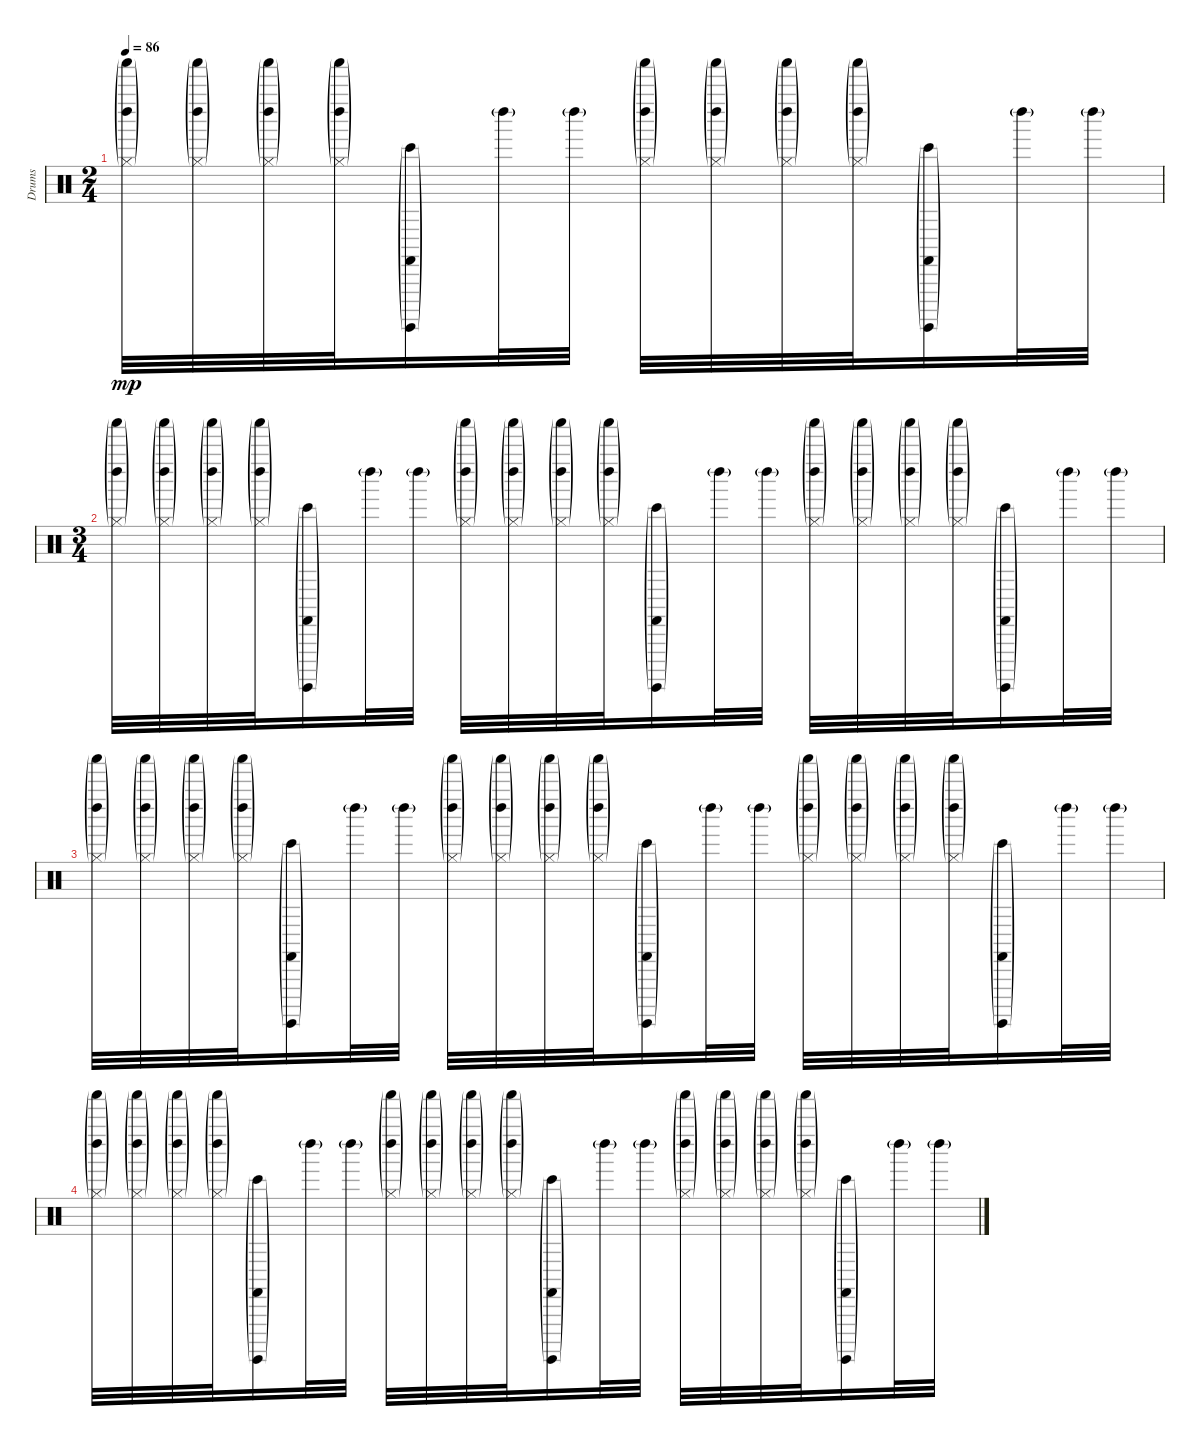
\track ("Drums" "Drums") {instrument percussion}
\staff {score}
\articulation defaults
\ts (2 4)
\tempo 86
\clef neutral
\ks c
("Shaker (hit)"{g} "Left Maraca (hit)"{g} "Hi-Hat (closed)"{g}).32{dy mp} ("Shaker (hit)"{g} "Left Maraca (hit)"{g} "Hi-Hat (closed)"{g}).32 ("Shaker (hit)"{g} "Left Maraca (hit)"{g} "Hi-Hat (closed)"{g}).32 ("Shaker (hit)"{g} "Left Maraca (hit)"{g} "Hi-Hat (closed)"{g}).32 ("Castanets (hit)"{g} "Surdo (hit)"{g} "Bongo High (hit)"{g}).16 "Left Maraca (hit)"{g}.32 "Left Maraca (hit)"{g}.32 ("Shaker (hit)"{g} "Left Maraca (hit)"{g} "Hi-Hat (closed)"{g}).32 ("Shaker (hit)"{g} "Left Maraca (hit)"{g} "Hi-Hat (closed)"{g}).32 ("Shaker (hit)"{g} "Left Maraca (hit)"{g} "Hi-Hat (closed)"{g}).32 ("Shaker (hit)"{g} "Left Maraca (hit)"{g} "Hi-Hat (closed)"{g}).32 ("Castanets (hit)"{g} "Surdo (hit)"{g} "Bongo High (hit)"{g}).16 "Left Maraca (hit)"{g}.32 "Left Maraca (hit)"{g}.32 |
\ts (3 4)
("Shaker (hit)"{g} "Left Maraca (hit)"{g} "Hi-Hat (closed)"{g}).32 ("Shaker (hit)"{g} "Left Maraca (hit)"{g} "Hi-Hat (closed)"{g}).32 ("Shaker (hit)"{g} "Left Maraca (hit)"{g} "Hi-Hat (closed)"{g}).32 ("Shaker (hit)"{g} "Left Maraca (hit)"{g} "Hi-Hat (closed)"{g}).32 ("Castanets (hit)"{g} "Surdo (hit)"{g} "Bongo High (hit)"{g}).16 "Left Maraca (hit)"{g}.32 "Left Maraca (hit)"{g}.32 ("Shaker (hit)"{g} "Left Maraca (hit)"{g} "Hi-Hat (closed)"{g}).32 ("Shaker (hit)"{g} "Left Maraca (hit)"{g} "Hi-Hat (closed)"{g}).32 ("Shaker (hit)"{g} "Left Maraca (hit)"{g} "Hi-Hat (closed)"{g}).32 ("Shaker (hit)"{g} "Left Maraca (hit)"{g} "Hi-Hat (closed)"{g}).32 ("Castanets (hit)"{g} "Surdo (hit)"{g} "Bongo High (hit)"{g}).16 "Left Maraca (hit)"{g}.32 "Left Maraca (hit)"{g}.32 ("Shaker (hit)"{g} "Left Maraca (hit)"{g} "Hi-Hat (closed)"{g}).32 ("Shaker (hit)"{g} "Left Maraca (hit)"{g} "Hi-Hat (closed)"{g}).32 ("Shaker (hit)"{g} "Left Maraca (hit)"{g} "Hi-Hat (closed)"{g}).32 ("Shaker (hit)"{g} "Left Maraca (hit)"{g} "Hi-Hat (closed)"{g}).32 ("Castanets (hit)"{g} "Surdo (hit)"{g} "Bongo High (hit)"{g}).16 "Left Maraca (hit)"{g}.32 "Left Maraca (hit)"{g}.32 |
("Shaker (hit)"{g} "Left Maraca (hit)"{g} "Hi-Hat (closed)"{g}).32 ("Shaker (hit)"{g} "Left Maraca (hit)"{g} "Hi-Hat (closed)"{g}).32 ("Shaker (hit)"{g} "Left Maraca (hit)"{g} "Hi-Hat (closed)"{g}).32 ("Shaker (hit)"{g} "Left Maraca (hit)"{g} "Hi-Hat (closed)"{g}).32 ("Castanets (hit)"{g} "Surdo (hit)"{g} "Bongo High (hit)"{g}).16 "Left Maraca (hit)"{g}.32 "Left Maraca (hit)"{g}.32 ("Shaker (hit)"{g} "Left Maraca (hit)"{g} "Hi-Hat (closed)"{g}).32 ("Shaker (hit)"{g} "Left Maraca (hit)"{g} "Hi-Hat (closed)"{g}).32 ("Shaker (hit)"{g} "Left Maraca (hit)"{g} "Hi-Hat (closed)"{g}).32 ("Shaker (hit)"{g} "Left Maraca (hit)"{g} "Hi-Hat (closed)"{g}).32 ("Castanets (hit)"{g} "Surdo (hit)"{g} "Bongo High (hit)"{g}).16 "Left Maraca (hit)"{g}.32 "Left Maraca (hit)"{g}.32 ("Shaker (hit)"{g} "Left Maraca (hit)"{g} "Hi-Hat (closed)"{g}).32 ("Shaker (hit)"{g} "Left Maraca (hit)"{g} "Hi-Hat (closed)"{g}).32 ("Shaker (hit)"{g} "Left Maraca (hit)"{g} "Hi-Hat (closed)"{g}).32 ("Shaker (hit)"{g} "Left Maraca (hit)"{g} "Hi-Hat (closed)"{g}).32 ("Castanets (hit)"{g} "Surdo (hit)"{g} "Bongo High (hit)"{g}).16 "Left Maraca (hit)"{g}.32 "Left Maraca (hit)"{g}.32 |
("Shaker (hit)"{g} "Left Maraca (hit)"{g} "Hi-Hat (closed)"{g}).32 ("Shaker (hit)"{g} "Left Maraca (hit)"{g} "Hi-Hat (closed)"{g}).32 ("Shaker (hit)"{g} "Left Maraca (hit)"{g} "Hi-Hat (closed)"{g}).32 ("Shaker (hit)"{g} "Left Maraca (hit)"{g} "Hi-Hat (closed)"{g}).32 ("Castanets (hit)"{g} "Surdo (hit)"{g} "Bongo High (hit)"{g}).16 "Left Maraca (hit)"{g}.32 "Left Maraca (hit)"{g}.32 ("Shaker (hit)"{g} "Left Maraca (hit)"{g} "Hi-Hat (closed)"{g}).32 ("Shaker (hit)"{g} "Left Maraca (hit)"{g} "Hi-Hat (closed)"{g}).32 ("Shaker (hit)"{g} "Left Maraca (hit)"{g} "Hi-Hat (closed)"{g}).32 ("Shaker (hit)"{g} "Left Maraca (hit)"{g} "Hi-Hat (closed)"{g}).32 ("Castanets (hit)"{g} "Surdo (hit)"{g} "Bongo High (hit)"{g}).16 "Left Maraca (hit)"{g}.32 "Left Maraca (hit)"{g}.32 ("Shaker (hit)"{g} "Left Maraca (hit)"{g} "Hi-Hat (closed)"{g}).32 ("Shaker (hit)"{g} "Left Maraca (hit)"{g} "Hi-Hat (closed)"{g}).32 ("Shaker (hit)"{g} "Left Maraca (hit)"{g} "Hi-Hat (closed)"{g}).32 ("Shaker (hit)"{g} "Left Maraca (hit)"{g} "Hi-Hat (closed)"{g}).32 ("Castanets (hit)"{g} "Surdo (hit)"{g} "Bongo High (hit)"{g}).16 "Left Maraca (hit)"{g}.32 "Left Maraca (hit)"{g}.32
